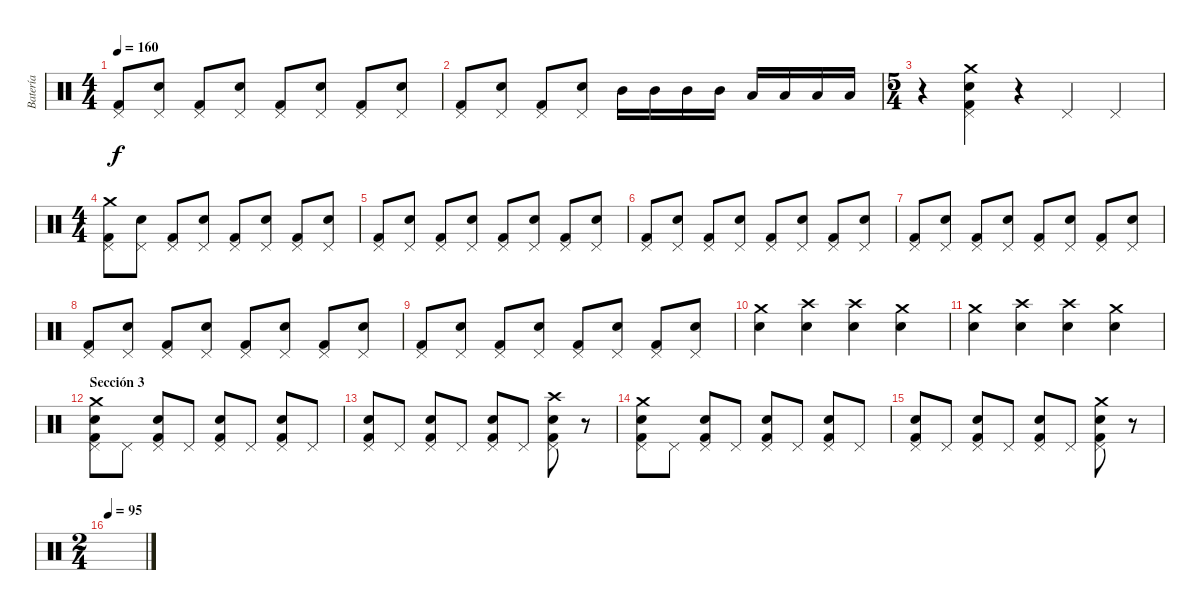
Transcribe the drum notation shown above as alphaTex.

\track ("Batería" "Batería") {instrument percussion}
\staff {score}
\articulation defaults
\ts (4 4)
\tempo 160
\clef neutral
\ks c
("Pedal Hi-Hat (hit)" "Kick (hit) 2").8{dy f} ("Pedal Hi-Hat (hit)" "Electric Snare (hit)").8 ("Pedal Hi-Hat (hit)" "Kick (hit) 2").8 ("Pedal Hi-Hat (hit)" "Electric Snare (hit)").8 ("Pedal Hi-Hat (hit)" "Kick (hit) 2").8 ("Pedal Hi-Hat (hit)" "Electric Snare (hit)").8 ("Pedal Hi-Hat (hit)" "Kick (hit) 2").8 ("Pedal Hi-Hat (hit)" "Electric Snare (hit)").8 |
("Pedal Hi-Hat (hit)" "Kick (hit) 2").8 ("Pedal Hi-Hat (hit)" "Electric Snare (hit)").8 ("Pedal Hi-Hat (hit)" "Kick (hit) 2").8 ("Pedal Hi-Hat (hit)" "Electric Snare (hit)").8 "Mid Tom (hit)".16 "Mid Tom (hit)".16 "Mid Tom (hit)".16 "Mid Tom (hit)".16 "Low Tom (hit)".16 "Low Tom (hit)".16 "Low Tom (hit)".16 "Low Tom (hit)".16 |
\ts (5 4)
r.4 ("Pedal Hi-Hat (hit)" "Crash medium (hit)" "Electric Snare (hit)" "Kick (hit) 2").4 r.4 "Pedal Hi-Hat (hit)".4 "Pedal Hi-Hat (hit)".4 |
\ts (4 4)
\section ("" " ")
("Pedal Hi-Hat (hit)" "Crash medium (hit)" "Kick (hit) 2").8 ("Pedal Hi-Hat (hit)" "Electric Snare (hit)").8 ("Pedal Hi-Hat (hit)" "Kick (hit) 2").8 ("Pedal Hi-Hat (hit)" "Electric Snare (hit)").8 ("Pedal Hi-Hat (hit)" "Kick (hit) 2").8 ("Pedal Hi-Hat (hit)" "Electric Snare (hit)").8 ("Pedal Hi-Hat (hit)" "Kick (hit) 2").8 ("Pedal Hi-Hat (hit)" "Electric Snare (hit)").8 |
("Pedal Hi-Hat (hit)" "Kick (hit) 2").8 ("Pedal Hi-Hat (hit)" "Electric Snare (hit)").8 ("Pedal Hi-Hat (hit)" "Kick (hit) 2").8 ("Pedal Hi-Hat (hit)" "Electric Snare (hit)").8 ("Pedal Hi-Hat (hit)" "Kick (hit) 2").8 ("Pedal Hi-Hat (hit)" "Electric Snare (hit)").8 ("Pedal Hi-Hat (hit)" "Kick (hit) 2").8 ("Pedal Hi-Hat (hit)" "Electric Snare (hit)").8 |
("Pedal Hi-Hat (hit)" "Kick (hit) 2").8 ("Pedal Hi-Hat (hit)" "Electric Snare (hit)").8 ("Pedal Hi-Hat (hit)" "Kick (hit) 2").8 ("Pedal Hi-Hat (hit)" "Electric Snare (hit)").8 ("Pedal Hi-Hat (hit)" "Kick (hit) 2").8 ("Pedal Hi-Hat (hit)" "Electric Snare (hit)").8 ("Pedal Hi-Hat (hit)" "Kick (hit) 2").8 ("Pedal Hi-Hat (hit)" "Electric Snare (hit)").8 |
("Pedal Hi-Hat (hit)" "Kick (hit) 2").8 ("Pedal Hi-Hat (hit)" "Electric Snare (hit)").8 ("Pedal Hi-Hat (hit)" "Kick (hit) 2").8 ("Pedal Hi-Hat (hit)" "Electric Snare (hit)").8 ("Pedal Hi-Hat (hit)" "Kick (hit) 2").8 ("Pedal Hi-Hat (hit)" "Electric Snare (hit)").8 ("Pedal Hi-Hat (hit)" "Kick (hit) 2").8 ("Pedal Hi-Hat (hit)" "Electric Snare (hit)").8 |
("Pedal Hi-Hat (hit)" "Kick (hit) 2").8 ("Pedal Hi-Hat (hit)" "Electric Snare (hit)").8 ("Pedal Hi-Hat (hit)" "Kick (hit) 2").8 ("Pedal Hi-Hat (hit)" "Electric Snare (hit)").8 ("Pedal Hi-Hat (hit)" "Kick (hit) 2").8 ("Pedal Hi-Hat (hit)" "Electric Snare (hit)").8 ("Pedal Hi-Hat (hit)" "Kick (hit) 2").8 ("Pedal Hi-Hat (hit)" "Electric Snare (hit)").8 |
("Pedal Hi-Hat (hit)" "Kick (hit) 2").8 ("Pedal Hi-Hat (hit)" "Electric Snare (hit)").8 ("Pedal Hi-Hat (hit)" "Kick (hit) 2").8 ("Pedal Hi-Hat (hit)" "Electric Snare (hit)").8 ("Pedal Hi-Hat (hit)" "Kick (hit) 2").8 ("Pedal Hi-Hat (hit)" "Electric Snare (hit)").8 ("Pedal Hi-Hat (hit)" "Kick (hit) 2").8 ("Pedal Hi-Hat (hit)" "Electric Snare (hit)").8 |
("Crash medium (hit)" "Electric Snare (hit)").4 ("Crash high (hit)" "Electric Snare (hit)").4 ("Crash high (hit)" "Electric Snare (hit)").4 ("Crash medium (hit)" "Electric Snare (hit)").4 |
("Crash medium (hit)" "Electric Snare (hit)").4 ("Crash high (hit)" "Electric Snare (hit)").4 ("Crash high (hit)" "Electric Snare (hit)").4 ("Crash medium (hit)" "Electric Snare (hit)").4 |
\section ("" "Sección 3")
("Pedal Hi-Hat (hit)" "Crash medium (hit)" "Electric Snare (hit)" "Kick (hit) 2").8 "Pedal Hi-Hat (hit)".8 ("Pedal Hi-Hat (hit)" "Electric Snare (hit)" "Kick (hit) 2").8 "Pedal Hi-Hat (hit)".8 ("Pedal Hi-Hat (hit)" "Electric Snare (hit)" "Kick (hit) 2").8 "Pedal Hi-Hat (hit)".8 ("Pedal Hi-Hat (hit)" "Electric Snare (hit)" "Kick (hit) 2").8 "Pedal Hi-Hat (hit)".8 |
("Pedal Hi-Hat (hit)" "Electric Snare (hit)" "Kick (hit) 2").8 "Pedal Hi-Hat (hit)".8 ("Pedal Hi-Hat (hit)" "Electric Snare (hit)" "Kick (hit) 2").8 "Pedal Hi-Hat (hit)".8 ("Pedal Hi-Hat (hit)" "Electric Snare (hit)" "Kick (hit) 2").8 "Pedal Hi-Hat (hit)".8 ("Pedal Hi-Hat (hit)" "Crash high (hit)" "Electric Snare (hit)" "Kick (hit) 2").8 r.8 |
("Pedal Hi-Hat (hit)" "Crash medium (hit)" "Electric Snare (hit)" "Kick (hit) 2").8 "Pedal Hi-Hat (hit)".8 ("Pedal Hi-Hat (hit)" "Electric Snare (hit)" "Kick (hit) 2").8 "Pedal Hi-Hat (hit)".8 ("Pedal Hi-Hat (hit)" "Electric Snare (hit)" "Kick (hit) 2").8 "Pedal Hi-Hat (hit)".8 ("Pedal Hi-Hat (hit)" "Electric Snare (hit)" "Kick (hit) 2").8 "Pedal Hi-Hat (hit)".8 |
("Pedal Hi-Hat (hit)" "Electric Snare (hit)" "Kick (hit) 2").8 "Pedal Hi-Hat (hit)".8 ("Pedal Hi-Hat (hit)" "Electric Snare (hit)" "Kick (hit) 2").8 "Pedal Hi-Hat (hit)".8 ("Pedal Hi-Hat (hit)" "Electric Snare (hit)" "Kick (hit) 2").8 "Pedal Hi-Hat (hit)".8 ("Pedal Hi-Hat (hit)" "Crash medium (hit)" "Electric Snare (hit)" "Kick (hit) 2").8 r.8 |
\ts (2 4)
\tempo 95
